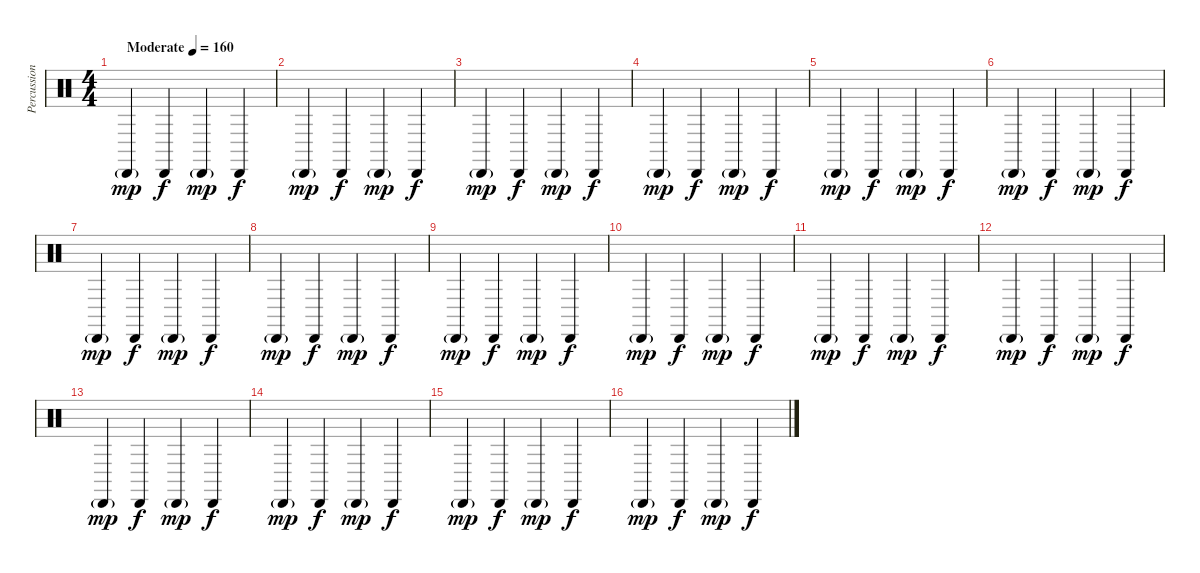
\track ("Percussion" "Percussion") {instrument percussion}
\staff {score}
\articulation defaults
\ts (4 4)
\tempo (160 "Moderate")
\clef neutral
\ks c "Cabasa (hit)"{g}.4{dy mp} "Cabasa (hit)".4{dy f} "Cabasa (hit)"{g}.4{dy mp} "Cabasa (hit)".4{dy f}
|
"Cabasa (hit)"{g}.4{dy mp} "Cabasa (hit)".4{dy f} "Cabasa (hit)"{g}.4{dy mp} "Cabasa (hit)".4{dy f} |
"Cabasa (hit)"{g}.4{dy mp} "Cabasa (hit)".4{dy f} "Cabasa (hit)"{g}.4{dy mp} "Cabasa (hit)".4{dy f} |
"Cabasa (hit)"{g}.4{dy mp} "Cabasa (hit)".4{dy f} "Cabasa (hit)"{g}.4{dy mp} "Cabasa (hit)".4{dy f} |
"Cabasa (hit)"{g}.4{dy mp} "Cabasa (hit)".4{dy f} "Cabasa (hit)"{g}.4{dy mp} "Cabasa (hit)".4{dy f} |
"Cabasa (hit)"{g}.4{dy mp} "Cabasa (hit)".4{dy f} "Cabasa (hit)"{g}.4{dy mp} "Cabasa (hit)".4{dy f} |
"Cabasa (hit)"{g}.4{dy mp} "Cabasa (hit)".4{dy f} "Cabasa (hit)"{g}.4{dy mp} "Cabasa (hit)".4{dy f} |
"Cabasa (hit)"{g}.4{dy mp} "Cabasa (hit)".4{dy f} "Cabasa (hit)"{g}.4{dy mp} "Cabasa (hit)".4{dy f} |
"Cabasa (hit)"{g}.4{dy mp} "Cabasa (hit)".4{dy f} "Cabasa (hit)"{g}.4{dy mp} "Cabasa (hit)".4{dy f} |
"Cabasa (hit)"{g}.4{dy mp} "Cabasa (hit)".4{dy f} "Cabasa (hit)"{g}.4{dy mp} "Cabasa (hit)".4{dy f} |
"Cabasa (hit)"{g}.4{dy mp} "Cabasa (hit)".4{dy f} "Cabasa (hit)"{g}.4{dy mp} "Cabasa (hit)".4{dy f} |
"Cabasa (hit)"{g}.4{dy mp} "Cabasa (hit)".4{dy f} "Cabasa (hit)"{g}.4{dy mp} "Cabasa (hit)".4{dy f} |
"Cabasa (hit)"{g}.4{dy mp} "Cabasa (hit)".4{dy f} "Cabasa (hit)"{g}.4{dy mp} "Cabasa (hit)".4{dy f} |
"Cabasa (hit)"{g}.4{dy mp} "Cabasa (hit)".4{dy f} "Cabasa (hit)"{g}.4{dy mp} "Cabasa (hit)".4{dy f} |
"Cabasa (hit)"{g}.4{dy mp} "Cabasa (hit)".4{dy f} "Cabasa (hit)"{g}.4{dy mp} "Cabasa (hit)".4{dy f} |
"Cabasa (hit)"{g}.4{dy mp} "Cabasa (hit)".4{dy f} "Cabasa (hit)"{g}.4{dy mp} "Cabasa (hit)".4{dy f}
